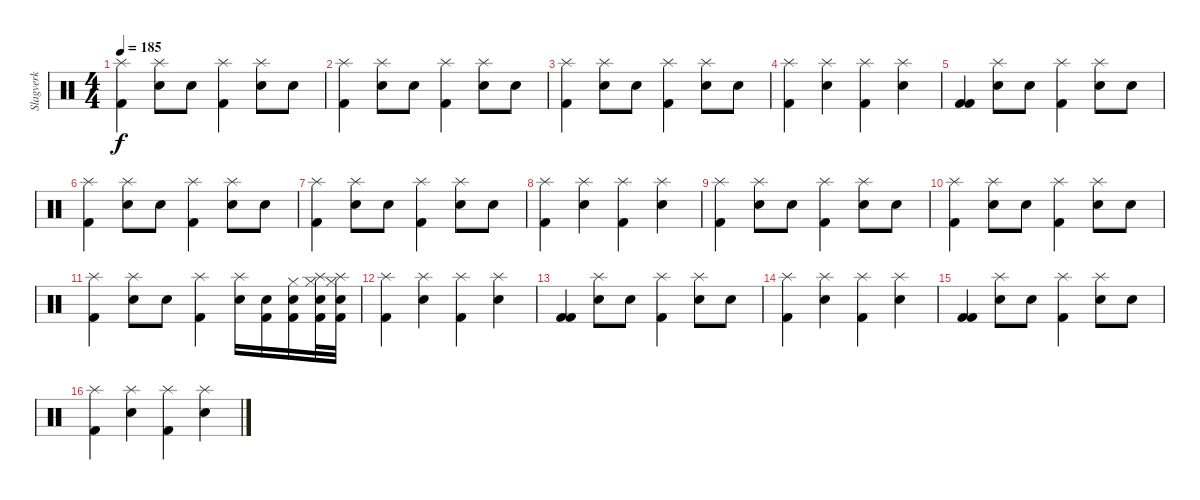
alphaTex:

\track ("Slagverk" "Slagverk") {instrument percussion}
\staff {score}
\articulation defaults
\ts (4 4)
\tempo 185
\clef neutral
\ks c
("Splash (hit)" "Kick (hit) 2").4{dy f} ("Splash (hit)" "Electric Snare (hit)").8 "Electric Snare (hit)".8 ("Splash (hit)" "Kick (hit) 2").4 ("Splash (hit)" "Electric Snare (hit)").8 "Electric Snare (hit)".8 |
("Splash (hit)" "Kick (hit) 2").4 ("Splash (hit)" "Electric Snare (hit)").8 "Electric Snare (hit)".8 ("Splash (hit)" "Kick (hit) 2").4 ("Splash (hit)" "Electric Snare (hit)").8 "Electric Snare (hit)".8 |
("Splash (hit)" "Kick (hit) 2").4 ("Splash (hit)" "Electric Snare (hit)").8 "Electric Snare (hit)".8 ("Splash (hit)" "Kick (hit) 2").4 ("Splash (hit)" "Electric Snare (hit)").8 "Electric Snare (hit)".8 |
("Splash (hit)" "Kick (hit) 2").4 ("Splash (hit)" "Electric Snare (hit)").4 ("Splash (hit)" "Kick (hit) 2").4 ("Splash (hit)" "Electric Snare (hit)").4 |
("Kick (hit) 2" "Kick (hit) 2").4 ("Splash (hit)" "Electric Snare (hit)").8 "Electric Snare (hit)".8 ("Splash (hit)" "Kick (hit) 2").4 ("Splash (hit)" "Electric Snare (hit)").8 "Electric Snare (hit)".8 |
("Splash (hit)" "Kick (hit) 2").4 ("Splash (hit)" "Electric Snare (hit)").8 "Electric Snare (hit)".8 ("Splash (hit)" "Kick (hit) 2").4 ("Splash (hit)" "Electric Snare (hit)").8 "Electric Snare (hit)".8 |
("Splash (hit)" "Kick (hit) 2").4 ("Splash (hit)" "Electric Snare (hit)").8 "Electric Snare (hit)".8 ("Splash (hit)" "Kick (hit) 2").4 ("Splash (hit)" "Electric Snare (hit)").8 "Electric Snare (hit)".8 |
("Splash (hit)" "Kick (hit) 2").4 ("Splash (hit)" "Electric Snare (hit)").4 ("Splash (hit)" "Kick (hit) 2").4 ("Splash (hit)" "Electric Snare (hit)").4 |
("Splash (hit)" "Kick (hit) 2").4 ("Splash (hit)" "Electric Snare (hit)").8 "Electric Snare (hit)".8 ("Splash (hit)" "Kick (hit) 2").4 ("Splash (hit)" "Electric Snare (hit)").8 "Electric Snare (hit)".8 |
("Splash (hit)" "Kick (hit) 2").4 ("Splash (hit)" "Electric Snare (hit)").8 "Electric Snare (hit)".8 ("Splash (hit)" "Kick (hit) 2").4 ("Splash (hit)" "Electric Snare (hit)").8 "Electric Snare (hit)".8 |
("Splash (hit)" "Kick (hit) 2").4 ("Splash (hit)" "Electric Snare (hit)").8 "Electric Snare (hit)".8 ("Splash (hit)" "Kick (hit) 2").4 ("Splash (hit)" "Electric Snare (hit)").16 ("Kick (hit) 2" "Electric Snare (hit)").16 ("Kick (hit) 2" "Electric Snare (hit)" "Hi-Hat (closed)").16 ("Kick (hit) 2" "Electric Snare (hit)" "Hi-Hat (closed)" "Splash (hit)").32 ("Kick (hit) 2" "Electric Snare (hit)" "Hi-Hat (closed)" "Splash (hit)").32 |
("Splash (hit)" "Kick (hit) 2").4 ("Splash (hit)" "Electric Snare (hit)").4 ("Splash (hit)" "Kick (hit) 2").4 ("Splash (hit)" "Electric Snare (hit)").4 |
("Kick (hit) 2" "Kick (hit) 2").4 ("Splash (hit)" "Electric Snare (hit)").8 "Electric Snare (hit)".8 ("Splash (hit)" "Kick (hit) 2").4 ("Splash (hit)" "Electric Snare (hit)").8 "Electric Snare (hit)".8 |
("Splash (hit)" "Kick (hit) 2").4 ("Splash (hit)" "Electric Snare (hit)").4 ("Splash (hit)" "Kick (hit) 2").4 ("Splash (hit)" "Electric Snare (hit)").4 |
("Kick (hit) 2" "Kick (hit) 2").4 ("Splash (hit)" "Electric Snare (hit)").8 "Electric Snare (hit)".8 ("Splash (hit)" "Kick (hit) 2").4 ("Splash (hit)" "Electric Snare (hit)").8 "Electric Snare (hit)".8 |
("Splash (hit)" "Kick (hit) 2").4 ("Splash (hit)" "Electric Snare (hit)").4 ("Splash (hit)" "Kick (hit) 2").4 ("Splash (hit)" "Electric Snare (hit)").4
